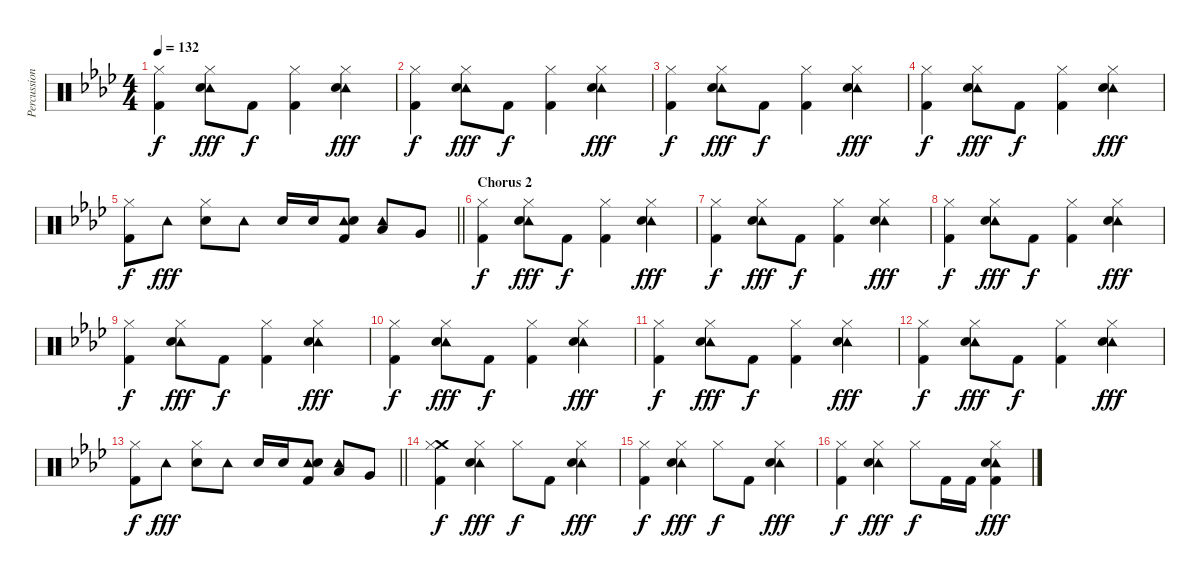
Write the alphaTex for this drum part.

\track ("Percussion - Nigel Olsen/Ray Cooper" "Percussion") {instrument percussion}
\staff {score}
\articulation defaults
\ts (4 4)
\tempo 132
\clef neutral
\ks ab
("Hi-Hat (closed)" "Kick (hit) 2").4{dy f} ("Tambourine (hit)" "Hi-Hat (closed)" "Snare (hit) 2").8{dy fff} "Kick (hit) 2".8{dy f} ("Hi-Hat (closed)" "Kick (hit) 2").4 ("Tambourine (hit)" "Hi-Hat (closed)" "Snare (hit) 2").4{dy fff} |
("Hi-Hat (closed)" "Kick (hit) 2").4{dy f} ("Tambourine (hit)" "Hi-Hat (closed)" "Snare (hit) 2").8{dy fff} "Kick (hit) 2".8{dy f} ("Hi-Hat (closed)" "Kick (hit) 2").4 ("Tambourine (hit)" "Hi-Hat (closed)" "Snare (hit) 2").4{dy fff} |
("Hi-Hat (closed)" "Kick (hit) 2").4{dy f} ("Tambourine (hit)" "Hi-Hat (closed)" "Snare (hit) 2").8{dy fff} "Kick (hit) 2".8{dy f} ("Hi-Hat (closed)" "Kick (hit) 2").4 ("Tambourine (hit)" "Hi-Hat (closed)" "Snare (hit) 2").4{dy fff} |
("Hi-Hat (closed)" "Kick (hit) 2").4{dy f} ("Tambourine (hit)" "Hi-Hat (closed)" "Snare (hit) 2").8{dy fff} "Kick (hit) 2".8{dy f} ("Hi-Hat (closed)" "Kick (hit) 2").4 ("Tambourine (hit)" "Hi-Hat (closed)" "Snare (hit) 2").4{dy fff} |
\barLineRight lightlight
("Hi-Hat (closed)" "Kick (hit) 2").8{dy f} "Tambourine (hit)".8{dy fff} ("Hi-Hat (closed)" "Snare (hit) 2").8 "Tambourine (hit)".8 "Snare (hit) 2".16 "Snare (hit) 2".16 ("Tambourine (hit)" "Snare (hit) 2" "Kick (hit) 2").8 ("Tambourine (hit)" "Low Tom (hit)").8 "Very Low Tom (hit)".8 |
\section ("" "Chorus 2")
("Hi-Hat (closed)" "Kick (hit) 2").4{dy f} ("Tambourine (hit)" "Hi-Hat (closed)" "Snare (hit) 2").8{dy fff} "Kick (hit) 2".8{dy f} ("Hi-Hat (closed)" "Kick (hit) 2").4 ("Tambourine (hit)" "Hi-Hat (closed)" "Snare (hit) 2").4{dy fff} |
("Hi-Hat (closed)" "Kick (hit) 2").4{dy f} ("Tambourine (hit)" "Hi-Hat (closed)" "Snare (hit) 2").8{dy fff} "Kick (hit) 2".8{dy f} ("Hi-Hat (closed)" "Kick (hit) 2").4 ("Tambourine (hit)" "Hi-Hat (closed)" "Snare (hit) 2").4{dy fff} |
("Hi-Hat (closed)" "Kick (hit) 2").4{dy f} ("Tambourine (hit)" "Hi-Hat (closed)" "Snare (hit) 2").8{dy fff} "Kick (hit) 2".8{dy f} ("Hi-Hat (closed)" "Kick (hit) 2").4 ("Tambourine (hit)" "Hi-Hat (closed)" "Snare (hit) 2").4{dy fff} |
("Hi-Hat (closed)" "Kick (hit) 2").4{dy f} ("Tambourine (hit)" "Hi-Hat (closed)" "Snare (hit) 2").8{dy fff} "Kick (hit) 2".8{dy f} ("Hi-Hat (closed)" "Kick (hit) 2").4 ("Tambourine (hit)" "Hi-Hat (closed)" "Snare (hit) 2").4{dy fff} |
("Hi-Hat (closed)" "Kick (hit) 2").4{dy f} ("Tambourine (hit)" "Hi-Hat (closed)" "Snare (hit) 2").8{dy fff} "Kick (hit) 2".8{dy f} ("Hi-Hat (closed)" "Kick (hit) 2").4 ("Tambourine (hit)" "Hi-Hat (closed)" "Snare (hit) 2").4{dy fff} |
("Hi-Hat (closed)" "Kick (hit) 2").4{dy f} ("Tambourine (hit)" "Hi-Hat (closed)" "Snare (hit) 2").8{dy fff} "Kick (hit) 2".8{dy f} ("Hi-Hat (closed)" "Kick (hit) 2").4 ("Tambourine (hit)" "Hi-Hat (closed)" "Snare (hit) 2").4{dy fff} |
("Hi-Hat (closed)" "Kick (hit) 2").4{dy f} ("Tambourine (hit)" "Hi-Hat (closed)" "Snare (hit) 2").8{dy fff} "Kick (hit) 2".8{dy f} ("Hi-Hat (closed)" "Kick (hit) 2").4 ("Tambourine (hit)" "Hi-Hat (closed)" "Snare (hit) 2").4{dy fff} |
\barLineRight lightlight
("Hi-Hat (closed)" "Kick (hit) 2").8{dy f} "Tambourine (hit)".8{dy fff} ("Hi-Hat (closed)" "Snare (hit) 2").8 "Tambourine (hit)".8 "Snare (hit) 2".16 "Snare (hit) 2".16 ("Tambourine (hit)" "Snare (hit) 2" "Kick (hit) 2").8 ("Tambourine (hit)" "Low Tom (hit)").8 "Very Low Tom (hit)".8 |
("Crash medium (hit)" "Hi-Hat (closed)" "Kick (hit) 2").4{dy f} ("Tambourine (hit)" "Hi-Hat (closed)" "Snare (hit) 2").4{dy fff} "Hi-Hat (closed)".8{dy f} "Kick (hit) 2".8 ("Tambourine (hit)" "Hi-Hat (closed)" "Snare (hit) 2").4{dy fff} |
("Hi-Hat (closed)" "Kick (hit) 2").4{dy f} ("Tambourine (hit)" "Hi-Hat (closed)" "Snare (hit) 2").4{dy fff} "Hi-Hat (closed)".8{dy f} "Kick (hit) 2".8 ("Tambourine (hit)" "Hi-Hat (closed)" "Snare (hit) 2").4{dy fff} |
("Hi-Hat (closed)" "Kick (hit) 2").4{dy f} ("Tambourine (hit)" "Hi-Hat (closed)" "Snare (hit) 2").4{dy fff} "Hi-Hat (closed)".8{dy f} "Kick (hit) 2".16 "Kick (hit) 2".16 ("Tambourine (hit)" "Hi-Hat (closed)" "Snare (hit) 2" "Kick (hit) 2").4{dy fff}
